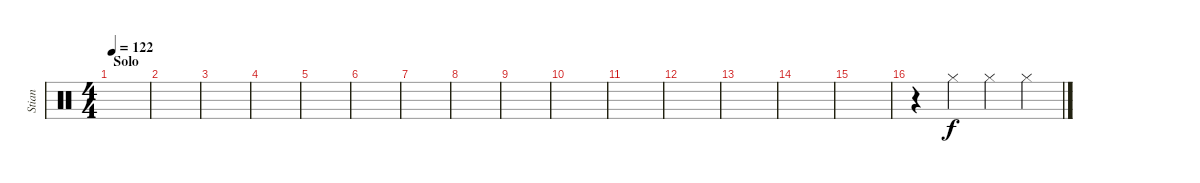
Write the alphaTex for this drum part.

\track ("Stian" "Stian") {instrument percussion}
\staff {score}
\articulation defaults
\ts (4 4)
\section ("" "Solo")
\tempo 122
\clef neutral
\ks c
|
|
|
|
|
|
|
|
|
|
|
|
|
|
|
r.4 "Hi-Hat (closed)".4 "Hi-Hat (closed)".4 "Hi-Hat (closed)".4
